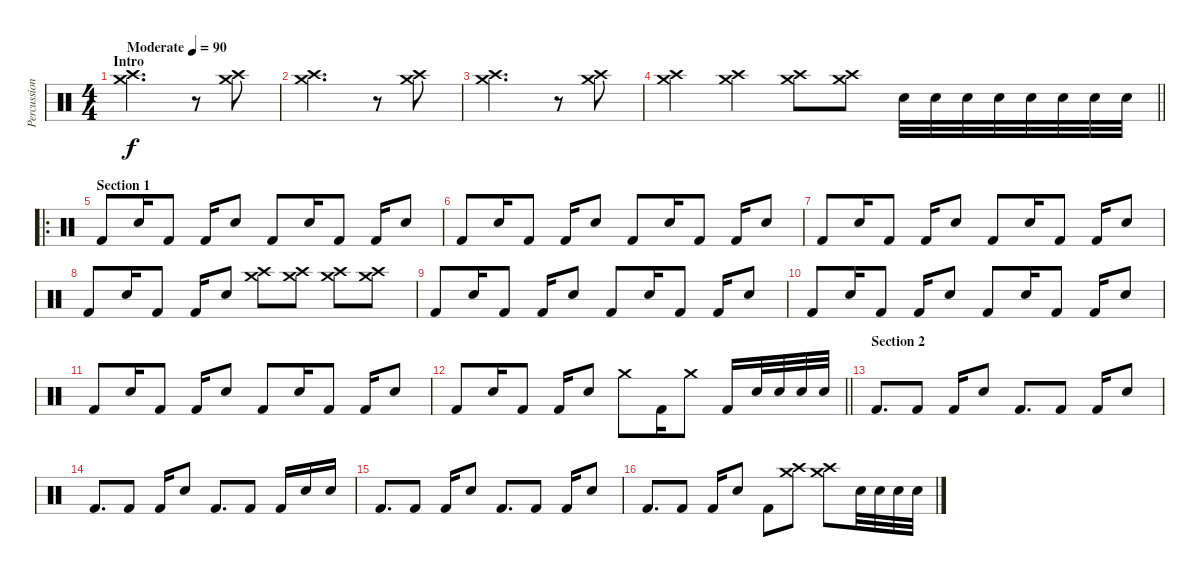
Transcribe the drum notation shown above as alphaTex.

\track ("Percussion" "Percussion") {instrument percussion}
\staff {score}
\articulation defaults
\ts (4 4)
\section ("" "Intro")
\tempo (90 "Moderate")
\clef neutral
\ks c
("Crash high (hit)" "Crash medium (hit)").2{d dy f} r.8 ("Crash high (hit)" "Crash medium (hit)").8 |
("Crash high (hit)" "Crash medium (hit)").2{d} r.8 ("Crash high (hit)" "Crash medium (hit)").8 |
("Crash high (hit)" "Crash medium (hit)").2{d} r.8 ("Crash high (hit)" "Crash medium (hit)").8 |
\barLineRight lightlight
("Crash high (hit)" "Crash medium (hit)").4 ("Crash high (hit)" "Crash medium (hit)").4 ("Crash high (hit)" "Crash medium (hit)").8 ("Crash high (hit)" "Crash medium (hit)").8 "Snare (hit) 2".32 "Snare (hit) 2".32 "Snare (hit) 2".32 "Snare (hit) 2".32 "Snare (hit) 2".32 "Snare (hit) 2".32 "Snare (hit) 2".32 "Snare (hit) 2".32 |
\ro
\section ("" "Section 1")
"Kick (hit) 2".8 "Snare (hit) 2".16 "Kick (hit) 2".8 "Kick (hit) 2".16 "Snare (hit) 2".8 "Kick (hit) 2".8 "Snare (hit) 2".16 "Kick (hit) 2".8 "Kick (hit) 2".16 "Snare (hit) 2".8 |
"Kick (hit) 2".8 "Snare (hit) 2".16 "Kick (hit) 2".8 "Kick (hit) 2".16 "Snare (hit) 2".8 "Kick (hit) 2".8 "Snare (hit) 2".16 "Kick (hit) 2".8 "Kick (hit) 2".16 "Snare (hit) 2".8 |
"Kick (hit) 2".8 "Snare (hit) 2".16 "Kick (hit) 2".8 "Kick (hit) 2".16 "Snare (hit) 2".8 "Kick (hit) 2".8 "Snare (hit) 2".16 "Kick (hit) 2".8 "Kick (hit) 2".16 "Snare (hit) 2".8 |
"Kick (hit) 2".8 "Snare (hit) 2".16 "Kick (hit) 2".8 "Kick (hit) 2".16 "Snare (hit) 2".8 ("Crash high (hit)" "Crash medium (hit)").8 ("Crash high (hit)" "Crash medium (hit)").8 ("Crash high (hit)" "Crash medium (hit)").8 ("Crash high (hit)" "Crash medium (hit)").8 |
"Kick (hit) 2".8 "Snare (hit) 2".16 "Kick (hit) 2".8 "Kick (hit) 2".16 "Snare (hit) 2".8 "Kick (hit) 2".8 "Snare (hit) 2".16 "Kick (hit) 2".8 "Kick (hit) 2".16 "Snare (hit) 2".8 |
"Kick (hit) 2".8 "Snare (hit) 2".16 "Kick (hit) 2".8 "Kick (hit) 2".16 "Snare (hit) 2".8 "Kick (hit) 2".8 "Snare (hit) 2".16 "Kick (hit) 2".8 "Kick (hit) 2".16 "Snare (hit) 2".8 |
"Kick (hit) 2".8 "Snare (hit) 2".16 "Kick (hit) 2".8 "Kick (hit) 2".16 "Snare (hit) 2".8 "Kick (hit) 2".8 "Snare (hit) 2".16 "Kick (hit) 2".8 "Kick (hit) 2".16 "Snare (hit) 2".8 |
\barLineRight lightlight "Kick (hit) 2".8 "Snare (hit) 2".16 "Kick (hit) 2".8 "Kick (hit) 2".16 "Snare (hit) 2".8 "Crash medium (hit)".8 "Kick (hit) 2".16 "Crash medium (hit)".8 "Kick (hit) 2".16 "Snare (hit) 2".32 "Snare (hit) 2".32 "Snare (hit) 2".32 "Snare (hit) 2".32
|
\section ("" "Section 2")
"Kick (hit) 2".8{d} "Kick (hit) 2".8 "Kick (hit) 2".16 "Snare (hit) 2".8 "Kick (hit) 2".8{d} "Kick (hit) 2".8 "Kick (hit) 2".16 "Snare (hit) 2".8 |
"Kick (hit) 2".8{d} "Kick (hit) 2".8 "Kick (hit) 2".16 "Snare (hit) 2".8 "Kick (hit) 2".8{d} "Kick (hit) 2".8 "Kick (hit) 2".16 "Snare (hit) 2".16 "Snare (hit) 2".16 |
"Kick (hit) 2".8{d} "Kick (hit) 2".8 "Kick (hit) 2".16 "Snare (hit) 2".8 "Kick (hit) 2".8{d} "Kick (hit) 2".8 "Kick (hit) 2".16 "Snare (hit) 2".8 |
"Kick (hit) 2".8{d} "Kick (hit) 2".8 "Kick (hit) 2".16 "Snare (hit) 2".8 "Kick (hit) 2".8 ("Crash high (hit)" "Crash medium (hit)").8 ("Crash high (hit)" "Crash medium (hit)").8 "Snare (hit) 2".32 "Snare (hit) 2".32 "Snare (hit) 2".32 "Snare (hit) 2".32
